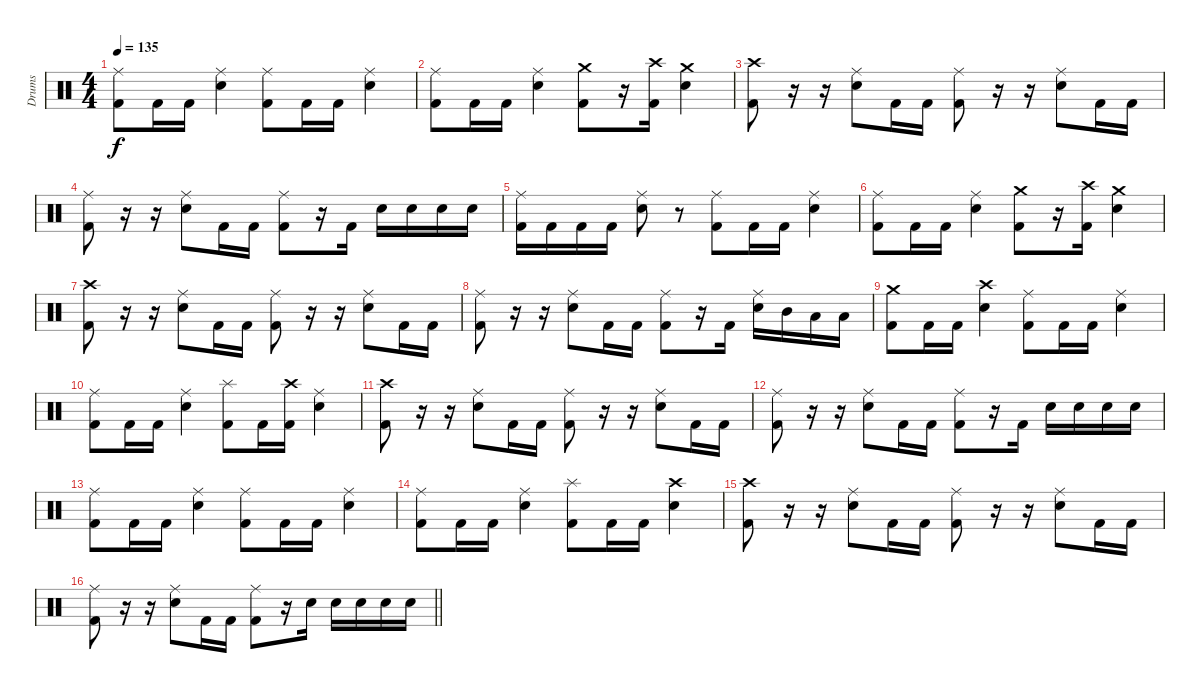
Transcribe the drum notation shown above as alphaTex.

\track ("Drums" "Drums") {instrument percussion}
\staff {score}
\articulation defaults
\ts (4 4)
\tempo 135
\clef neutral
\ks c
("Ride (middle)" "Kick (hit) 2").8{dy f} "Kick (hit) 2".16 "Kick (hit) 2".16 ("Ride (middle)" "Electric Snare (hit)").4 ("Ride (middle)" "Kick (hit) 2").8 "Kick (hit) 2".16 "Kick (hit) 2".16 ("Ride (middle)" "Electric Snare (hit)").4 |
("Ride (middle)" "Kick (hit) 2").8 "Kick (hit) 2".16 "Kick (hit) 2".16 ("Ride (middle)" "Electric Snare (hit)").4 ("Crash medium (hit)" "Kick (hit) 2").8 r.16 ("Crash high (hit)" "Kick (hit) 2").16 ("Crash medium (hit)" "Electric Snare (hit)").4 |
("Crash high (hit)" "Kick (hit) 2").8 r.16 r.16 ("Ride (middle)" "Electric Snare (hit)").8 "Kick (hit) 2".16 "Kick (hit) 2".16 ("Ride (middle)" "Kick (hit) 2").8 r.16 r.16 ("Ride (middle)" "Electric Snare (hit)").8 "Kick (hit) 2".16 "Kick (hit) 2".16 |
("Ride (middle)" "Kick (hit) 2").8 r.16 r.16 ("Ride (middle)" "Electric Snare (hit)").8 "Kick (hit) 2".16 "Kick (hit) 2".16 ("Ride (middle)" "Kick (hit) 2").8 r.16 "Kick (hit) 2".16 "Electric Snare (hit)".16 "Electric Snare (hit)".16 "Electric Snare (hit)".16 "Electric Snare (hit)".16 |
("Ride (middle)" "Kick (hit) 2").16 "Kick (hit) 2".16 "Kick (hit) 2".16 "Kick (hit) 2".16 ("Ride (middle)" "Electric Snare (hit)").8 r.8 ("Ride (middle)" "Kick (hit) 2").8 "Kick (hit) 2".16 "Kick (hit) 2".16 ("Ride (middle)" "Electric Snare (hit)").4 |
("Ride (middle)" "Kick (hit) 2").8 "Kick (hit) 2".16 "Kick (hit) 2".16 ("Ride (middle)" "Electric Snare (hit)").4 ("Crash medium (hit)" "Kick (hit) 2").8 r.16 ("Crash high (hit)" "Kick (hit) 2").16 ("Crash medium (hit)" "Electric Snare (hit)").4 |
("Crash high (hit)" "Kick (hit) 2").8 r.16 r.16 ("Ride (middle)" "Electric Snare (hit)").8 "Kick (hit) 2".16 "Kick (hit) 2".16 ("Ride (middle)" "Kick (hit) 2").8 r.16 r.16 ("Ride (middle)" "Electric Snare (hit)").8 "Kick (hit) 2".16 "Kick (hit) 2".16 |
("Ride (middle)" "Kick (hit) 2").8 r.16 r.16 ("Ride (middle)" "Electric Snare (hit)").8 "Kick (hit) 2".16 "Kick (hit) 2".16 ("Ride (middle)" "Kick (hit) 2").8 r.16 "Kick (hit) 2".16 ("Ride (middle)" "Electric Snare (hit)").16 "Mid Tom (hit)".16 "Low Tom (hit)".16 "Low Floor Tom (hit)".16 |
("Crash medium (hit)" "Kick (hit) 2").8 "Kick (hit) 2".16 "Kick (hit) 2".16 ("Crash high (hit)" "Electric Snare (hit)").4 ("Ride (middle)" "Kick (hit) 2").8 "Kick (hit) 2".16 "Kick (hit) 2".16 ("Ride (middle)" "Electric Snare (hit)").4 |
("Ride (middle)" "Kick (hit) 2").8 "Kick (hit) 2".16 "Kick (hit) 2".16 ("Ride (middle)" "Electric Snare (hit)").4 ("Splash (hit)" "Kick (hit) 2").8 "Kick (hit) 2".16 ("Crash high (hit)" "Kick (hit) 2").16 ("Ride (middle)" "Electric Snare (hit)").4 |
("Crash high (hit)" "Kick (hit) 2").8 r.16 r.16 ("Ride (middle)" "Electric Snare (hit)").8 "Kick (hit) 2".16 "Kick (hit) 2".16 ("Ride (middle)" "Kick (hit) 2").8 r.16 r.16 ("Ride (middle)" "Electric Snare (hit)").8 "Kick (hit) 2".16 "Kick (hit) 2".16 |
("Ride (middle)" "Kick (hit) 2").8 r.16 r.16 ("Ride (middle)" "Electric Snare (hit)").8 "Kick (hit) 2".16 "Kick (hit) 2".16 ("Ride (middle)" "Kick (hit) 2").8 r.16 "Kick (hit) 2".16 "Electric Snare (hit)".16 "Electric Snare (hit)".16 "Electric Snare (hit)".16 "Electric Snare (hit)".16 |
("Ride (middle)" "Kick (hit) 2").8 "Kick (hit) 2".16 "Kick (hit) 2".16 ("Ride (middle)" "Electric Snare (hit)").4 ("Ride (middle)" "Kick (hit) 2").8 "Kick (hit) 2".16 "Kick (hit) 2".16 ("Ride (middle)" "Electric Snare (hit)").4 |
("Ride (middle)" "Kick (hit) 2").8 "Kick (hit) 2".16 "Kick (hit) 2".16 ("Ride (middle)" "Electric Snare (hit)").4 ("Splash (hit)" "Kick (hit) 2").8 "Kick (hit) 2".16 "Kick (hit) 2".16 ("Crash high (hit)" "Electric Snare (hit)").4 |
("Crash high (hit)" "Kick (hit) 2").8 r.16 r.16 ("Ride (middle)" "Electric Snare (hit)").8 "Kick (hit) 2".16 "Kick (hit) 2".16 ("Ride (middle)" "Kick (hit) 2").8 r.16 r.16 ("Ride (middle)" "Electric Snare (hit)").8 "Kick (hit) 2".16 "Kick (hit) 2".16 |
\barLineRight lightlight
("Ride (middle)" "Kick (hit) 2").8 r.16 r.16 ("Ride (middle)" "Electric Snare (hit)").8 "Kick (hit) 2".16 "Kick (hit) 2".16 ("Ride (middle)" "Kick (hit) 2").8 r.16 "Electric Snare (hit)".16 "Electric Snare (hit)".16 "Electric Snare (hit)".16 "Electric Snare (hit)".16 "Electric Snare (hit)".16
